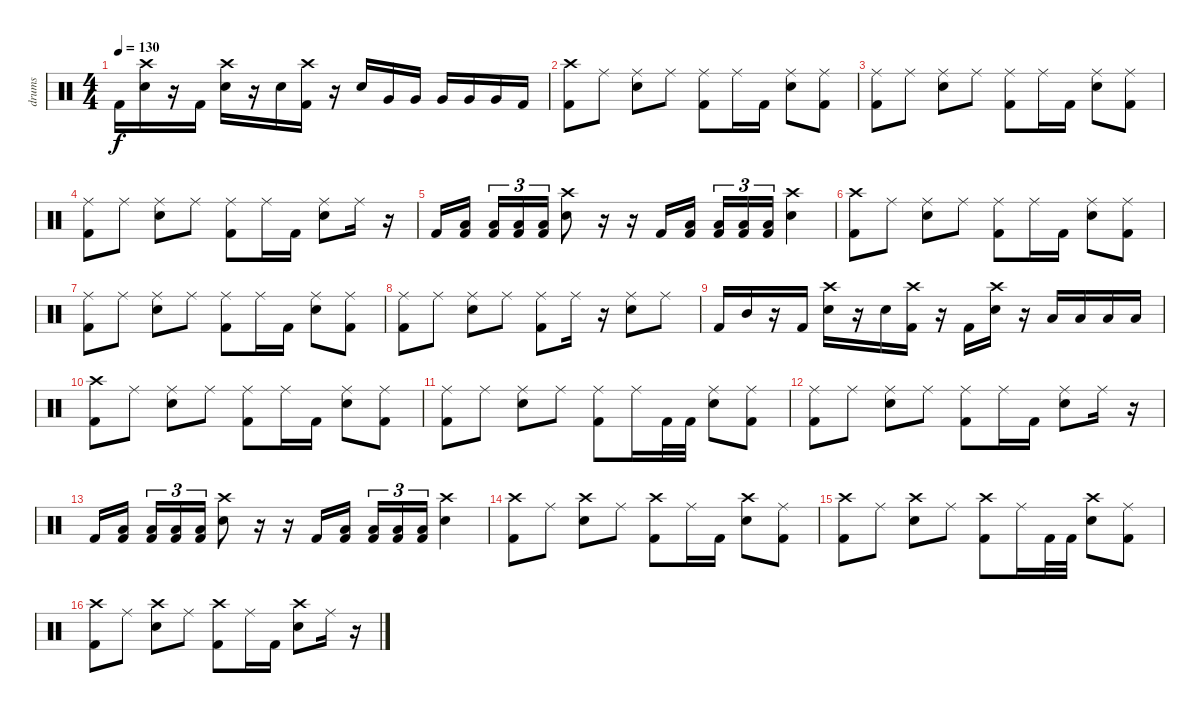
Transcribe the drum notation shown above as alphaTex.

\track ("drums" "drums") {instrument percussion}
\staff {score}
\articulation defaults
\ts (4 4)
\tempo 130
\clef neutral
\ks c "Kick (hit) 2".16{dy f}
("Crash high (hit)" "Snare (hit) 2").16 r.16 "Kick (hit) 2".16 ("Crash high (hit)" "Snare (hit) 2").16 r.16 "Snare (hit) 2".16 ("Crash high (hit)" "Kick (hit) 2").16 r.16 "Snare (hit) 2".16 "Very Low Tom (hit)".16 "Very Low Tom (hit)".16 "Very Low Tom (hit)".16 "Very Low Tom (hit)".16 "Very Low Tom (hit)".16 "Kick (hit) 2".16 |
("Crash high (hit)" "Kick (hit) 2").8 "Ride (middle)".8 ("Ride (middle)" "Snare (hit) 2").8 "Ride (middle)".8 ("Ride (middle)" "Kick (hit) 2").8 "Ride (middle)".16 "Kick (hit) 2".16 ("Ride (middle)" "Snare (hit) 2").8 ("Ride (middle)" "Kick (hit) 2").8 |
("Ride (middle)" "Kick (hit) 2").8 "Ride (middle)".8 ("Ride (middle)" "Snare (hit) 2").8 "Ride (middle)".8 ("Ride (middle)" "Kick (hit) 2").8 "Ride (middle)".16 "Kick (hit) 2".16 ("Ride (middle)" "Snare (hit) 2").8 ("Ride (middle)" "Kick (hit) 2").8 |
("Ride (middle)" "Kick (hit) 2").8 "Ride (middle)".8 ("Ride (middle)" "Snare (hit) 2").8 "Ride (middle)".8 ("Ride (middle)" "Kick (hit) 2").8 "Ride (middle)".16 "Kick (hit) 2".16 ("Ride (middle)" "Snare (hit) 2").8 "Ride (middle)".16 r.16 |
"Kick (hit) 2".16 ("Low Floor Tom (hit)" "Kick (hit) 2").16{beam splitsecondary} ("Low Floor Tom (hit)" "Kick (hit) 2").16{tu (3 2)} ("Low Floor Tom (hit)" "Kick (hit) 2").16{tu (3 2)} ("Low Floor Tom (hit)" "Kick (hit) 2").16{tu (3 2)} ("Crash high (hit)" "Snare (hit) 2").8 r.16 r.16 "Kick (hit) 2".16 ("Low Floor Tom (hit)" "Kick (hit) 2").16{beam splitsecondary} ("Low Floor Tom (hit)" "Kick (hit) 2").16{tu (3 2)} ("Low Floor Tom (hit)" "Kick (hit) 2").16{tu (3 2)} ("Low Floor Tom (hit)" "Kick (hit) 2").16{tu (3 2)} ("Crash high (hit)" "Snare (hit) 2").4 |
("Crash high (hit)" "Kick (hit) 2").8 "Ride (middle)".8 ("Ride (middle)" "Snare (hit) 2").8 "Ride (middle)".8 ("Ride (middle)" "Kick (hit) 2").8 "Ride (middle)".16 "Kick (hit) 2".16 ("Ride (middle)" "Snare (hit) 2").8 ("Ride (middle)" "Kick (hit) 2").8 |
("Ride (middle)" "Kick (hit) 2").8 "Ride (middle)".8 ("Ride (middle)" "Snare (hit) 2").8 "Ride (middle)".8 ("Ride (middle)" "Kick (hit) 2").8 "Ride (middle)".16 "Kick (hit) 2".16 ("Ride (middle)" "Snare (hit) 2").8 ("Ride (middle)" "Kick (hit) 2").8 |
("Ride (middle)" "Kick (hit) 2").8 "Ride (middle)".8 ("Ride (middle)" "Snare (hit) 2").8 "Ride (middle)".8 ("Ride (middle)" "Kick (hit) 2").8 "Ride (middle)".16 r.16 ("Ride (middle)" "Snare (hit) 2").8 "Ride (middle)".8 |
"Kick (hit) 2".16 "Mid Tom (hit)".16 r.16 "Kick (hit) 2".16 ("Crash high (hit)" "Snare (hit) 2").16 r.16 "Snare (hit) 2".16 ("Crash high (hit)" "Kick (hit) 2").16 r.16 "Kick (hit) 2".16 ("Crash high (hit)" "Snare (hit) 2").16 r.16 "Low Floor Tom (hit)".16 "Low Floor Tom (hit)".16 "Low Floor Tom (hit)".16 "Low Floor Tom (hit)".16 |
("Crash high (hit)" "Kick (hit) 2").8 "Ride (middle)".8 ("Ride (middle)" "Snare (hit) 2").8 "Ride (middle)".8 ("Ride (middle)" "Kick (hit) 2").8 "Ride (middle)".16 "Kick (hit) 2".16 ("Ride (middle)" "Snare (hit) 2").8 ("Ride (middle)" "Kick (hit) 2").8 |
("Ride (middle)" "Kick (hit) 2").8 "Ride (middle)".8 ("Ride (middle)" "Snare (hit) 2").8 "Ride (middle)".8 ("Ride (middle)" "Kick (hit) 2").8 "Ride (middle)".16 "Kick (hit) 2".32 "Kick (hit) 2".32 ("Ride (middle)" "Snare (hit) 2").8 ("Ride (middle)" "Kick (hit) 2").8 |
("Ride (middle)" "Kick (hit) 2").8 "Ride (middle)".8 ("Ride (middle)" "Snare (hit) 2").8 "Ride (middle)".8 ("Ride (middle)" "Kick (hit) 2").8 "Ride (middle)".16 "Kick (hit) 2".16 ("Ride (middle)" "Snare (hit) 2").8 "Ride (middle)".16 r.16 |
"Kick (hit) 2".16 ("Low Floor Tom (hit)" "Kick (hit) 2").16{beam splitsecondary} ("Low Floor Tom (hit)" "Kick (hit) 2").16{tu (3 2)} ("Low Floor Tom (hit)" "Kick (hit) 2").16{tu (3 2)} ("Low Floor Tom (hit)" "Kick (hit) 2").16{tu (3 2)} ("Crash high (hit)" "Snare (hit) 2").8 r.16 r.16 "Kick (hit) 2".16 ("Low Floor Tom (hit)" "Kick (hit) 2").16{beam splitsecondary} ("Low Floor Tom (hit)" "Kick (hit) 2").16{tu (3 2)} ("Low Floor Tom (hit)" "Kick (hit) 2").16{tu (3 2)} ("Low Floor Tom (hit)" "Kick (hit) 2").16{tu (3 2)} ("Crash high (hit)" "Snare (hit) 2").4 |
("Crash high (hit)" "Kick (hit) 2").8 "Ride (middle)".8 ("Crash high (hit)" "Snare (hit) 2").8 "Ride (middle)".8 ("Crash high (hit)" "Kick (hit) 2").8 "Ride (middle)".16 "Kick (hit) 2".16 ("Crash high (hit)" "Snare (hit) 2").8 ("Ride (middle)" "Kick (hit) 2").8 |
("Crash high (hit)" "Kick (hit) 2").8 "Ride (middle)".8 ("Crash high (hit)" "Snare (hit) 2").8 "Ride (middle)".8 ("Crash high (hit)" "Kick (hit) 2").8 "Ride (middle)".16 "Kick (hit) 2".32 "Kick (hit) 2".32 ("Crash high (hit)" "Snare (hit) 2").8 ("Ride (middle)" "Kick (hit) 2").8 |
("Crash high (hit)" "Kick (hit) 2").8 "Ride (middle)".8 ("Crash high (hit)" "Snare (hit) 2").8 "Ride (middle)".8 ("Crash high (hit)" "Kick (hit) 2").8 "Ride (middle)".16 "Kick (hit) 2".16 ("Crash high (hit)" "Snare (hit) 2").8 "Ride (middle)".16 r.16
